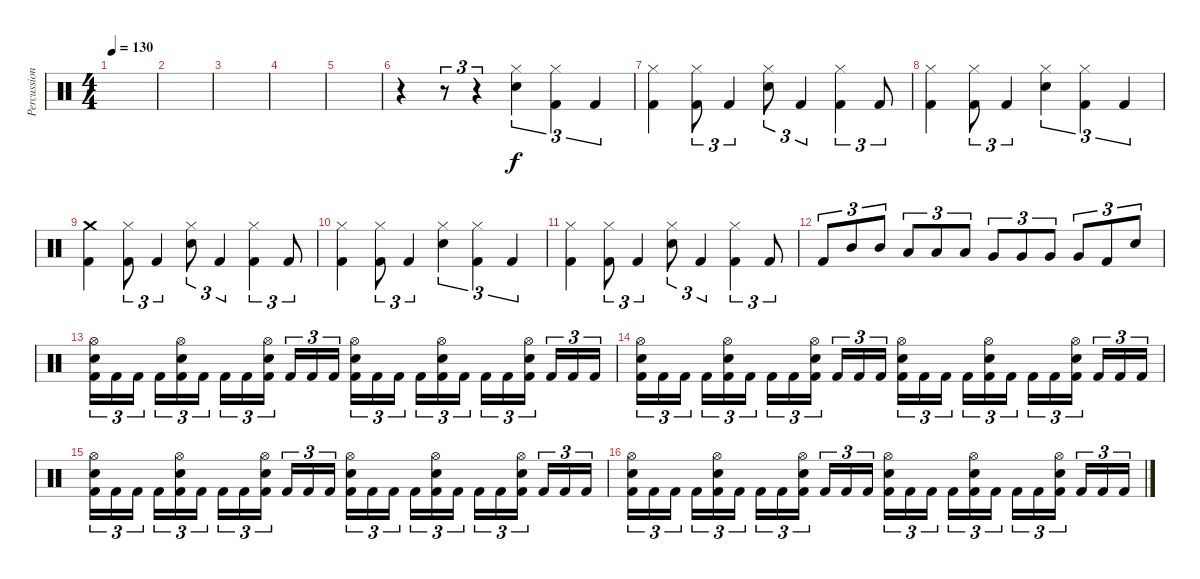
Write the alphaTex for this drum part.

\track ("Percussion" "Percussion") {instrument percussion}
\staff {score}
\articulation defaults
\ts (4 4)
\tempo 130
\clef neutral
\ks c
|
|
|
|
|
r.4 r.8{tu (3 2)} r.4{tu (3 2)} ("Snare (hit) 2" "Hi-Hat (closed)").4{tu (3 2)} ("Kick (hit) 2" "Hi-Hat (closed)").4{tu (3 2)} "Kick (hit) 2".4{tu (3 2)} |
("Kick (hit) 2" "Hi-Hat (closed)").4 ("Kick (hit) 2" "Hi-Hat (closed)").8{tu (3 2)} "Kick (hit) 2".4{tu (3 2)} ("Snare (hit) 2" "Hi-Hat (closed)").8{tu (3 2)} "Kick (hit) 2".4{tu (3 2)} ("Kick (hit) 2" "Hi-Hat (closed)").4{tu (3 2)} "Kick (hit) 2".8{tu (3 2)} |
("Kick (hit) 2" "Hi-Hat (closed)").4 ("Kick (hit) 2" "Hi-Hat (closed)").8{tu (3 2)} "Kick (hit) 2".4{tu (3 2)} ("Snare (hit) 2" "Hi-Hat (closed)").4{tu (3 2)} ("Kick (hit) 2" "Hi-Hat (closed)").4{tu (3 2)} "Kick (hit) 2".4{tu (3 2)} |
("Kick (hit) 2" "Crash medium (hit)").4 ("Kick (hit) 2" "Hi-Hat (closed)").8{tu (3 2)} "Kick (hit) 2".4{tu (3 2)} ("Snare (hit) 2" "Hi-Hat (closed)").8{tu (3 2)} "Kick (hit) 2".4{tu (3 2)} ("Kick (hit) 2" "Hi-Hat (closed)").4{tu (3 2)} "Kick (hit) 2".8{tu (3 2)} |
("Kick (hit) 2" "Hi-Hat (closed)").4 ("Kick (hit) 2" "Hi-Hat (closed)").8{tu (3 2)} "Kick (hit) 2".4{tu (3 2)} ("Snare (hit) 2" "Hi-Hat (closed)").4{tu (3 2)} ("Kick (hit) 2" "Hi-Hat (closed)").4{tu (3 2)} "Kick (hit) 2".4{tu (3 2)} |
("Kick (hit) 2" "Hi-Hat (closed)").4 ("Kick (hit) 2" "Hi-Hat (closed)").8{tu (3 2)} "Kick (hit) 2".4{tu (3 2)} ("Snare (hit) 2" "Hi-Hat (closed)").8{tu (3 2)} "Kick (hit) 2".4{tu (3 2)} ("Kick (hit) 2" "Hi-Hat (closed)").4{tu (3 2)} "Kick (hit) 2".8{tu (3 2)} |
"Kick (hit) 2".8{tu (3 2)} "Mid Tom (hit)".8{tu (3 2)} "Mid Tom (hit)".8{tu (3 2)} "Low Tom (hit)".8{tu (3 2)} "Low Tom (hit)".8{tu (3 2)} "Low Tom (hit)".8{tu (3 2)} "Very Low Tom (hit)".8{tu (3 2)} "Very Low Tom (hit)".8{tu (3 2)} "Very Low Tom (hit)".8{tu (3 2)} "Very Low Tom (hit)".8{tu (3 2)} "Kick (hit) 2".8{tu (3 2)} "Snare (hit) 2".8{tu (3 2)} |
("Kick (hit) 2" "Snare (hit) 2" "Hi-Hat (open)").16{tu (3 2)} "Kick (hit) 2".16{tu (3 2)} "Kick (hit) 2".16{tu (3 2) beam splitsecondary} "Kick (hit) 2".16{tu (3 2)} ("Kick (hit) 2" "Snare (hit) 2" "Hi-Hat (open)").16{tu (3 2)} "Kick (hit) 2".16{tu (3 2)} "Kick (hit) 2".16{tu (3 2)} "Kick (hit) 2".16{tu (3 2)} ("Kick (hit) 2" "Snare (hit) 2" "Hi-Hat (open)").16{tu (3 2) beam splitsecondary} "Kick (hit) 2".16{tu (3 2)} "Kick (hit) 2".16{tu (3 2)} "Kick (hit) 2".16{tu (3 2)} ("Kick (hit) 2" "Snare (hit) 2" "Hi-Hat (open)").16{tu (3 2)} "Kick (hit) 2".16{tu (3 2)} "Kick (hit) 2".16{tu (3 2) beam splitsecondary} "Kick (hit) 2".16{tu (3 2)} ("Kick (hit) 2" "Snare (hit) 2" "Hi-Hat (open)").16{tu (3 2)} "Kick (hit) 2".16{tu (3 2)} "Kick (hit) 2".16{tu (3 2)} "Kick (hit) 2".16{tu (3 2)} ("Kick (hit) 2" "Snare (hit) 2" "Hi-Hat (open)").16{tu (3 2) beam splitsecondary} "Kick (hit) 2".16{tu (3 2)} "Kick (hit) 2".16{tu (3 2)} "Kick (hit) 2".16{tu (3 2)} |
("Kick (hit) 2" "Snare (hit) 2" "Hi-Hat (open)").16{tu (3 2)} "Kick (hit) 2".16{tu (3 2)} "Kick (hit) 2".16{tu (3 2) beam splitsecondary} "Kick (hit) 2".16{tu (3 2)} ("Kick (hit) 2" "Snare (hit) 2" "Hi-Hat (open)").16{tu (3 2)} "Kick (hit) 2".16{tu (3 2)} "Kick (hit) 2".16{tu (3 2)} "Kick (hit) 2".16{tu (3 2)} ("Kick (hit) 2" "Snare (hit) 2" "Hi-Hat (open)").16{tu (3 2) beam splitsecondary} "Kick (hit) 2".16{tu (3 2)} "Kick (hit) 2".16{tu (3 2)} "Kick (hit) 2".16{tu (3 2)} ("Kick (hit) 2" "Snare (hit) 2" "Hi-Hat (open)").16{tu (3 2)} "Kick (hit) 2".16{tu (3 2)} "Kick (hit) 2".16{tu (3 2) beam splitsecondary} "Kick (hit) 2".16{tu (3 2)} ("Kick (hit) 2" "Snare (hit) 2" "Hi-Hat (open)").16{tu (3 2)} "Kick (hit) 2".16{tu (3 2)} "Kick (hit) 2".16{tu (3 2)} "Kick (hit) 2".16{tu (3 2)} ("Kick (hit) 2" "Snare (hit) 2" "Hi-Hat (open)").16{tu (3 2) beam splitsecondary} "Kick (hit) 2".16{tu (3 2)} "Kick (hit) 2".16{tu (3 2)} "Kick (hit) 2".16{tu (3 2)} |
("Kick (hit) 2" "Snare (hit) 2" "Hi-Hat (open)").16{tu (3 2)} "Kick (hit) 2".16{tu (3 2)} "Kick (hit) 2".16{tu (3 2) beam splitsecondary} "Kick (hit) 2".16{tu (3 2)} ("Kick (hit) 2" "Snare (hit) 2" "Hi-Hat (open)").16{tu (3 2)} "Kick (hit) 2".16{tu (3 2)} "Kick (hit) 2".16{tu (3 2)} "Kick (hit) 2".16{tu (3 2)} ("Kick (hit) 2" "Snare (hit) 2" "Hi-Hat (open)").16{tu (3 2) beam splitsecondary} "Kick (hit) 2".16{tu (3 2)} "Kick (hit) 2".16{tu (3 2)} "Kick (hit) 2".16{tu (3 2)} ("Kick (hit) 2" "Snare (hit) 2" "Hi-Hat (open)").16{tu (3 2)} "Kick (hit) 2".16{tu (3 2)} "Kick (hit) 2".16{tu (3 2) beam splitsecondary} "Kick (hit) 2".16{tu (3 2)} ("Kick (hit) 2" "Snare (hit) 2" "Hi-Hat (open)").16{tu (3 2)} "Kick (hit) 2".16{tu (3 2)} "Kick (hit) 2".16{tu (3 2)} "Kick (hit) 2".16{tu (3 2)} ("Kick (hit) 2" "Snare (hit) 2" "Hi-Hat (open)").16{tu (3 2) beam splitsecondary} "Kick (hit) 2".16{tu (3 2)} "Kick (hit) 2".16{tu (3 2)} "Kick (hit) 2".16{tu (3 2)} |
("Kick (hit) 2" "Snare (hit) 2" "Hi-Hat (open)").16{tu (3 2)} "Kick (hit) 2".16{tu (3 2)} "Kick (hit) 2".16{tu (3 2) beam splitsecondary} "Kick (hit) 2".16{tu (3 2)} ("Kick (hit) 2" "Snare (hit) 2" "Hi-Hat (open)").16{tu (3 2)} "Kick (hit) 2".16{tu (3 2)} "Kick (hit) 2".16{tu (3 2)} "Kick (hit) 2".16{tu (3 2)} ("Kick (hit) 2" "Snare (hit) 2" "Hi-Hat (open)").16{tu (3 2) beam splitsecondary} "Kick (hit) 2".16{tu (3 2)} "Kick (hit) 2".16{tu (3 2)} "Kick (hit) 2".16{tu (3 2)} ("Kick (hit) 2" "Snare (hit) 2" "Hi-Hat (open)").16{tu (3 2)} "Kick (hit) 2".16{tu (3 2)} "Kick (hit) 2".16{tu (3 2) beam splitsecondary} "Kick (hit) 2".16{tu (3 2)} ("Kick (hit) 2" "Snare (hit) 2" "Hi-Hat (open)").16{tu (3 2)} "Kick (hit) 2".16{tu (3 2)} "Kick (hit) 2".16{tu (3 2)} "Kick (hit) 2".16{tu (3 2)} ("Kick (hit) 2" "Snare (hit) 2" "Hi-Hat (open)").16{tu (3 2) beam splitsecondary} "Kick (hit) 2".16{tu (3 2)} "Kick (hit) 2".16{tu (3 2)} "Kick (hit) 2".16{tu (3 2)}
